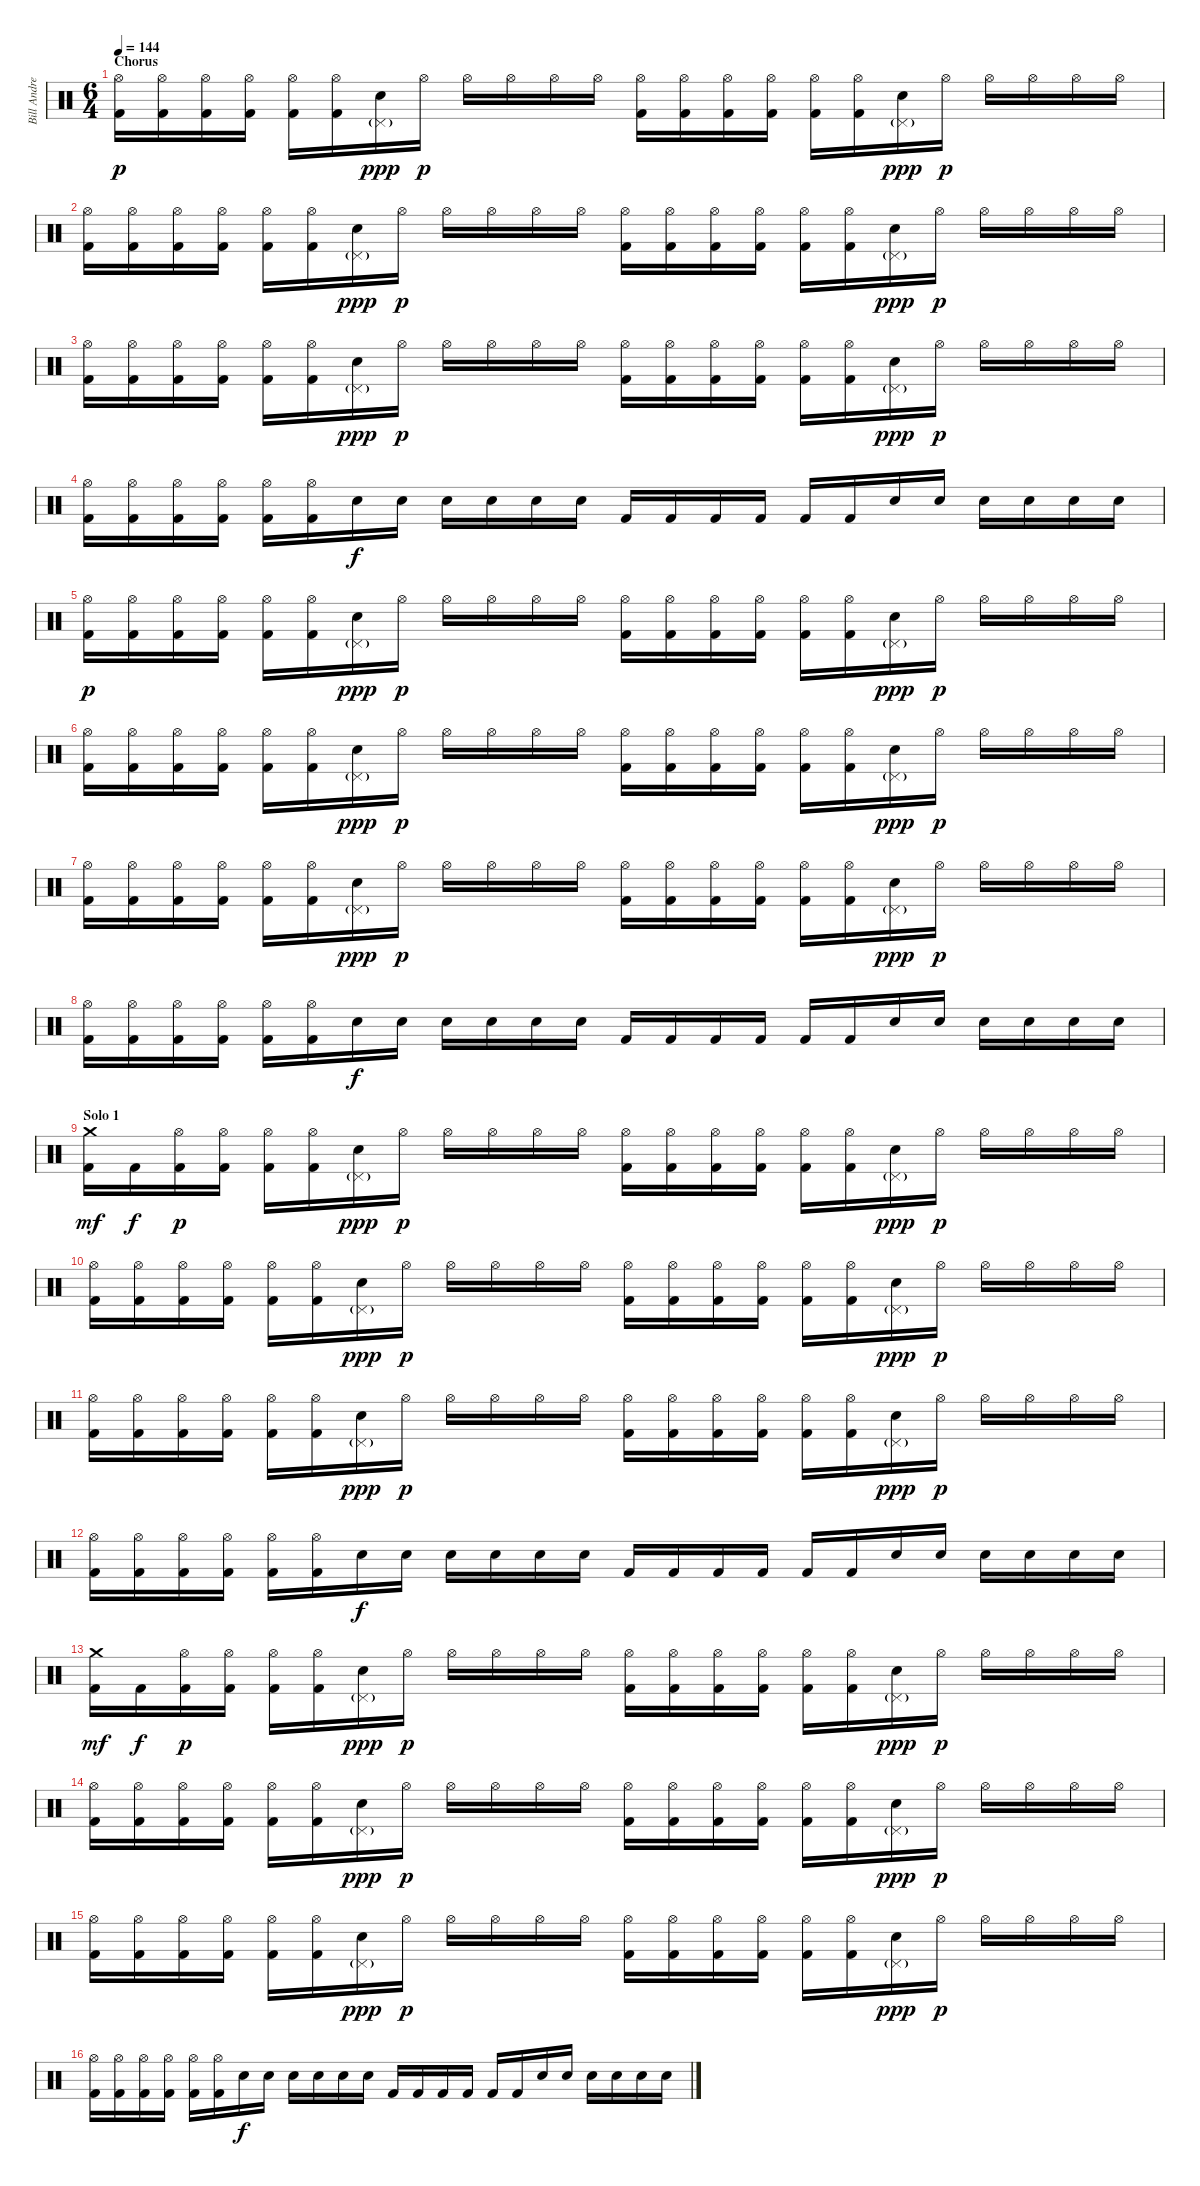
\track ("Bill Andrews" "Bill Andre") {instrument percussion}
\staff {score}
\articulation defaults
\ts (6 4)
\section ("" "Chorus")
\tempo 144
\clef neutral
\ks c
("Kick (hit) 2" "Hi-Hat (open)").16{dy p} ("Kick (hit) 2" "Hi-Hat (open)").16 ("Kick (hit) 2" "Hi-Hat (open)").16 ("Kick (hit) 2" "Hi-Hat (open)").16 ("Kick (hit) 2" "Hi-Hat (open)").16 ("Kick (hit) 2" "Hi-Hat (open)").16 ("Pedal Hi-Hat (hit)"{g} "Snare (hit) 2").16{dy ppp} "Hi-Hat (open)".16{dy p} "Hi-Hat (open)".16 "Hi-Hat (open)".16 "Hi-Hat (open)".16 "Hi-Hat (open)".16 ("Kick (hit) 2" "Hi-Hat (open)").16 ("Kick (hit) 2" "Hi-Hat (open)").16 ("Kick (hit) 2" "Hi-Hat (open)").16 ("Kick (hit) 2" "Hi-Hat (open)").16 ("Kick (hit) 2" "Hi-Hat (open)").16 ("Kick (hit) 2" "Hi-Hat (open)").16 ("Pedal Hi-Hat (hit)"{g} "Snare (hit) 2").16{dy ppp} "Hi-Hat (open)".16{dy p} "Hi-Hat (open)".16 "Hi-Hat (open)".16 "Hi-Hat (open)".16 "Hi-Hat (open)".16 |
("Kick (hit) 2" "Hi-Hat (open)").16 ("Kick (hit) 2" "Hi-Hat (open)").16 ("Kick (hit) 2" "Hi-Hat (open)").16 ("Kick (hit) 2" "Hi-Hat (open)").16 ("Kick (hit) 2" "Hi-Hat (open)").16 ("Kick (hit) 2" "Hi-Hat (open)").16 ("Pedal Hi-Hat (hit)"{g} "Snare (hit) 2").16{dy ppp} "Hi-Hat (open)".16{dy p} "Hi-Hat (open)".16 "Hi-Hat (open)".16 "Hi-Hat (open)".16 "Hi-Hat (open)".16 ("Kick (hit) 2" "Hi-Hat (open)").16 ("Kick (hit) 2" "Hi-Hat (open)").16 ("Kick (hit) 2" "Hi-Hat (open)").16 ("Kick (hit) 2" "Hi-Hat (open)").16 ("Kick (hit) 2" "Hi-Hat (open)").16 ("Kick (hit) 2" "Hi-Hat (open)").16 ("Pedal Hi-Hat (hit)"{g} "Snare (hit) 2").16{dy ppp} "Hi-Hat (open)".16{dy p} "Hi-Hat (open)".16 "Hi-Hat (open)".16 "Hi-Hat (open)".16 "Hi-Hat (open)".16 |
("Kick (hit) 2" "Hi-Hat (open)").16 ("Kick (hit) 2" "Hi-Hat (open)").16 ("Kick (hit) 2" "Hi-Hat (open)").16 ("Kick (hit) 2" "Hi-Hat (open)").16 ("Kick (hit) 2" "Hi-Hat (open)").16 ("Kick (hit) 2" "Hi-Hat (open)").16 ("Pedal Hi-Hat (hit)"{g} "Snare (hit) 2").16{dy ppp} "Hi-Hat (open)".16{dy p} "Hi-Hat (open)".16 "Hi-Hat (open)".16 "Hi-Hat (open)".16 "Hi-Hat (open)".16 ("Kick (hit) 2" "Hi-Hat (open)").16 ("Kick (hit) 2" "Hi-Hat (open)").16 ("Kick (hit) 2" "Hi-Hat (open)").16 ("Kick (hit) 2" "Hi-Hat (open)").16 ("Kick (hit) 2" "Hi-Hat (open)").16 ("Kick (hit) 2" "Hi-Hat (open)").16 ("Pedal Hi-Hat (hit)"{g} "Snare (hit) 2").16{dy ppp} "Hi-Hat (open)".16{dy p} "Hi-Hat (open)".16 "Hi-Hat (open)".16 "Hi-Hat (open)".16 "Hi-Hat (open)".16 |
("Kick (hit) 2" "Hi-Hat (open)").16 ("Kick (hit) 2" "Hi-Hat (open)").16 ("Kick (hit) 2" "Hi-Hat (open)").16 ("Kick (hit) 2" "Hi-Hat (open)").16 ("Kick (hit) 2" "Hi-Hat (open)").16 ("Kick (hit) 2" "Hi-Hat (open)").16 "Snare (hit) 2".16{dy f} "Snare (hit) 2".16 "Snare (hit) 2".16 "Snare (hit) 2".16 "Snare (hit) 2".16 "Snare (hit) 2".16 "Kick (hit) 2".16 "Kick (hit) 2".16 "Kick (hit) 2".16 "Kick (hit) 2".16 "Kick (hit) 2".16 "Kick (hit) 2".16 "Snare (hit) 2".16 "Snare (hit) 2".16 "Snare (hit) 2".16 "Snare (hit) 2".16 "Snare (hit) 2".16 "Snare (hit) 2".16 |
("Kick (hit) 2" "Hi-Hat (open)").16{dy p} ("Kick (hit) 2" "Hi-Hat (open)").16 ("Kick (hit) 2" "Hi-Hat (open)").16 ("Kick (hit) 2" "Hi-Hat (open)").16 ("Kick (hit) 2" "Hi-Hat (open)").16 ("Kick (hit) 2" "Hi-Hat (open)").16 ("Pedal Hi-Hat (hit)"{g} "Snare (hit) 2").16{dy ppp} "Hi-Hat (open)".16{dy p} "Hi-Hat (open)".16 "Hi-Hat (open)".16 "Hi-Hat (open)".16 "Hi-Hat (open)".16 ("Kick (hit) 2" "Hi-Hat (open)").16 ("Kick (hit) 2" "Hi-Hat (open)").16 ("Kick (hit) 2" "Hi-Hat (open)").16 ("Kick (hit) 2" "Hi-Hat (open)").16 ("Kick (hit) 2" "Hi-Hat (open)").16 ("Kick (hit) 2" "Hi-Hat (open)").16 ("Pedal Hi-Hat (hit)"{g} "Snare (hit) 2").16{dy ppp} "Hi-Hat (open)".16{dy p} "Hi-Hat (open)".16 "Hi-Hat (open)".16 "Hi-Hat (open)".16 "Hi-Hat (open)".16 |
("Kick (hit) 2" "Hi-Hat (open)").16 ("Kick (hit) 2" "Hi-Hat (open)").16 ("Kick (hit) 2" "Hi-Hat (open)").16 ("Kick (hit) 2" "Hi-Hat (open)").16 ("Kick (hit) 2" "Hi-Hat (open)").16 ("Kick (hit) 2" "Hi-Hat (open)").16 ("Pedal Hi-Hat (hit)"{g} "Snare (hit) 2").16{dy ppp} "Hi-Hat (open)".16{dy p} "Hi-Hat (open)".16 "Hi-Hat (open)".16 "Hi-Hat (open)".16 "Hi-Hat (open)".16 ("Kick (hit) 2" "Hi-Hat (open)").16 ("Kick (hit) 2" "Hi-Hat (open)").16 ("Kick (hit) 2" "Hi-Hat (open)").16 ("Kick (hit) 2" "Hi-Hat (open)").16 ("Kick (hit) 2" "Hi-Hat (open)").16 ("Kick (hit) 2" "Hi-Hat (open)").16 ("Pedal Hi-Hat (hit)"{g} "Snare (hit) 2").16{dy ppp} "Hi-Hat (open)".16{dy p} "Hi-Hat (open)".16 "Hi-Hat (open)".16 "Hi-Hat (open)".16 "Hi-Hat (open)".16 |
("Kick (hit) 2" "Hi-Hat (open)").16 ("Kick (hit) 2" "Hi-Hat (open)").16 ("Kick (hit) 2" "Hi-Hat (open)").16 ("Kick (hit) 2" "Hi-Hat (open)").16 ("Kick (hit) 2" "Hi-Hat (open)").16 ("Kick (hit) 2" "Hi-Hat (open)").16 ("Pedal Hi-Hat (hit)"{g} "Snare (hit) 2").16{dy ppp} "Hi-Hat (open)".16{dy p} "Hi-Hat (open)".16 "Hi-Hat (open)".16 "Hi-Hat (open)".16 "Hi-Hat (open)".16 ("Kick (hit) 2" "Hi-Hat (open)").16 ("Kick (hit) 2" "Hi-Hat (open)").16 ("Kick (hit) 2" "Hi-Hat (open)").16 ("Kick (hit) 2" "Hi-Hat (open)").16 ("Kick (hit) 2" "Hi-Hat (open)").16 ("Kick (hit) 2" "Hi-Hat (open)").16 ("Pedal Hi-Hat (hit)"{g} "Snare (hit) 2").16{dy ppp} "Hi-Hat (open)".16{dy p} "Hi-Hat (open)".16 "Hi-Hat (open)".16 "Hi-Hat (open)".16 "Hi-Hat (open)".16 |
("Kick (hit) 2" "Hi-Hat (open)").16 ("Kick (hit) 2" "Hi-Hat (open)").16 ("Kick (hit) 2" "Hi-Hat (open)").16 ("Kick (hit) 2" "Hi-Hat (open)").16 ("Kick (hit) 2" "Hi-Hat (open)").16 ("Kick (hit) 2" "Hi-Hat (open)").16 "Snare (hit) 2".16{dy f} "Snare (hit) 2".16 "Snare (hit) 2".16 "Snare (hit) 2".16 "Snare (hit) 2".16 "Snare (hit) 2".16 "Kick (hit) 2".16 "Kick (hit) 2".16 "Kick (hit) 2".16 "Kick (hit) 2".16 "Kick (hit) 2".16 "Kick (hit) 2".16 "Snare (hit) 2".16 "Snare (hit) 2".16 "Snare (hit) 2".16 "Snare (hit) 2".16 "Snare (hit) 2".16 "Snare (hit) 2".16 |
\section ("" "Solo 1")
("Kick (hit) 2" "Crash medium (hit)").16{dy mf} "Kick (hit) 2".16{dy f} ("Kick (hit) 2" "Hi-Hat (open)").16{dy p} ("Kick (hit) 2" "Hi-Hat (open)").16 ("Kick (hit) 2" "Hi-Hat (open)").16 ("Kick (hit) 2" "Hi-Hat (open)").16 ("Pedal Hi-Hat (hit)"{g} "Snare (hit) 2").16{dy ppp} "Hi-Hat (open)".16{dy p} "Hi-Hat (open)".16 "Hi-Hat (open)".16 "Hi-Hat (open)".16 "Hi-Hat (open)".16 ("Kick (hit) 2" "Hi-Hat (open)").16 ("Kick (hit) 2" "Hi-Hat (open)").16 ("Kick (hit) 2" "Hi-Hat (open)").16 ("Kick (hit) 2" "Hi-Hat (open)").16 ("Kick (hit) 2" "Hi-Hat (open)").16 ("Kick (hit) 2" "Hi-Hat (open)").16 ("Pedal Hi-Hat (hit)"{g} "Snare (hit) 2").16{dy ppp} "Hi-Hat (open)".16{dy p} "Hi-Hat (open)".16 "Hi-Hat (open)".16 "Hi-Hat (open)".16 "Hi-Hat (open)".16 |
("Kick (hit) 2" "Hi-Hat (open)").16 ("Kick (hit) 2" "Hi-Hat (open)").16 ("Kick (hit) 2" "Hi-Hat (open)").16 ("Kick (hit) 2" "Hi-Hat (open)").16 ("Kick (hit) 2" "Hi-Hat (open)").16 ("Kick (hit) 2" "Hi-Hat (open)").16 ("Pedal Hi-Hat (hit)"{g} "Snare (hit) 2").16{dy ppp} "Hi-Hat (open)".16{dy p} "Hi-Hat (open)".16 "Hi-Hat (open)".16 "Hi-Hat (open)".16 "Hi-Hat (open)".16 ("Kick (hit) 2" "Hi-Hat (open)").16 ("Kick (hit) 2" "Hi-Hat (open)").16 ("Kick (hit) 2" "Hi-Hat (open)").16 ("Kick (hit) 2" "Hi-Hat (open)").16 ("Kick (hit) 2" "Hi-Hat (open)").16 ("Kick (hit) 2" "Hi-Hat (open)").16 ("Pedal Hi-Hat (hit)"{g} "Snare (hit) 2").16{dy ppp} "Hi-Hat (open)".16{dy p} "Hi-Hat (open)".16 "Hi-Hat (open)".16 "Hi-Hat (open)".16 "Hi-Hat (open)".16 |
("Kick (hit) 2" "Hi-Hat (open)").16 ("Kick (hit) 2" "Hi-Hat (open)").16 ("Kick (hit) 2" "Hi-Hat (open)").16 ("Kick (hit) 2" "Hi-Hat (open)").16 ("Kick (hit) 2" "Hi-Hat (open)").16 ("Kick (hit) 2" "Hi-Hat (open)").16 ("Pedal Hi-Hat (hit)"{g} "Snare (hit) 2").16{dy ppp} "Hi-Hat (open)".16{dy p} "Hi-Hat (open)".16 "Hi-Hat (open)".16 "Hi-Hat (open)".16 "Hi-Hat (open)".16 ("Kick (hit) 2" "Hi-Hat (open)").16 ("Kick (hit) 2" "Hi-Hat (open)").16 ("Kick (hit) 2" "Hi-Hat (open)").16 ("Kick (hit) 2" "Hi-Hat (open)").16 ("Kick (hit) 2" "Hi-Hat (open)").16 ("Kick (hit) 2" "Hi-Hat (open)").16 ("Pedal Hi-Hat (hit)"{g} "Snare (hit) 2").16{dy ppp} "Hi-Hat (open)".16{dy p} "Hi-Hat (open)".16 "Hi-Hat (open)".16 "Hi-Hat (open)".16 "Hi-Hat (open)".16 |
("Kick (hit) 2" "Hi-Hat (open)").16 ("Kick (hit) 2" "Hi-Hat (open)").16 ("Kick (hit) 2" "Hi-Hat (open)").16 ("Kick (hit) 2" "Hi-Hat (open)").16 ("Kick (hit) 2" "Hi-Hat (open)").16 ("Kick (hit) 2" "Hi-Hat (open)").16 "Snare (hit) 2".16{dy f} "Snare (hit) 2".16 "Snare (hit) 2".16 "Snare (hit) 2".16 "Snare (hit) 2".16 "Snare (hit) 2".16 "Kick (hit) 2".16 "Kick (hit) 2".16 "Kick (hit) 2".16 "Kick (hit) 2".16 "Kick (hit) 2".16 "Kick (hit) 2".16 "Snare (hit) 2".16 "Snare (hit) 2".16 "Snare (hit) 2".16 "Snare (hit) 2".16 "Snare (hit) 2".16 "Snare (hit) 2".16 |
("Kick (hit) 2" "Crash medium (hit)").16{dy mf} "Kick (hit) 2".16{dy f} ("Kick (hit) 2" "Hi-Hat (open)").16{dy p} ("Kick (hit) 2" "Hi-Hat (open)").16 ("Kick (hit) 2" "Hi-Hat (open)").16 ("Kick (hit) 2" "Hi-Hat (open)").16 ("Pedal Hi-Hat (hit)"{g} "Snare (hit) 2").16{dy ppp} "Hi-Hat (open)".16{dy p} "Hi-Hat (open)".16 "Hi-Hat (open)".16 "Hi-Hat (open)".16 "Hi-Hat (open)".16 ("Kick (hit) 2" "Hi-Hat (open)").16 ("Kick (hit) 2" "Hi-Hat (open)").16 ("Kick (hit) 2" "Hi-Hat (open)").16 ("Kick (hit) 2" "Hi-Hat (open)").16 ("Kick (hit) 2" "Hi-Hat (open)").16 ("Kick (hit) 2" "Hi-Hat (open)").16 ("Pedal Hi-Hat (hit)"{g} "Snare (hit) 2").16{dy ppp} "Hi-Hat (open)".16{dy p} "Hi-Hat (open)".16 "Hi-Hat (open)".16 "Hi-Hat (open)".16 "Hi-Hat (open)".16 |
("Kick (hit) 2" "Hi-Hat (open)").16 ("Kick (hit) 2" "Hi-Hat (open)").16 ("Kick (hit) 2" "Hi-Hat (open)").16 ("Kick (hit) 2" "Hi-Hat (open)").16 ("Kick (hit) 2" "Hi-Hat (open)").16 ("Kick (hit) 2" "Hi-Hat (open)").16 ("Pedal Hi-Hat (hit)"{g} "Snare (hit) 2").16{dy ppp} "Hi-Hat (open)".16{dy p} "Hi-Hat (open)".16 "Hi-Hat (open)".16 "Hi-Hat (open)".16 "Hi-Hat (open)".16 ("Kick (hit) 2" "Hi-Hat (open)").16 ("Kick (hit) 2" "Hi-Hat (open)").16 ("Kick (hit) 2" "Hi-Hat (open)").16 ("Kick (hit) 2" "Hi-Hat (open)").16 ("Kick (hit) 2" "Hi-Hat (open)").16 ("Kick (hit) 2" "Hi-Hat (open)").16 ("Pedal Hi-Hat (hit)"{g} "Snare (hit) 2").16{dy ppp} "Hi-Hat (open)".16{dy p} "Hi-Hat (open)".16 "Hi-Hat (open)".16 "Hi-Hat (open)".16 "Hi-Hat (open)".16 |
("Kick (hit) 2" "Hi-Hat (open)").16 ("Kick (hit) 2" "Hi-Hat (open)").16 ("Kick (hit) 2" "Hi-Hat (open)").16 ("Kick (hit) 2" "Hi-Hat (open)").16 ("Kick (hit) 2" "Hi-Hat (open)").16 ("Kick (hit) 2" "Hi-Hat (open)").16 ("Pedal Hi-Hat (hit)"{g} "Snare (hit) 2").16{dy ppp} "Hi-Hat (open)".16{dy p} "Hi-Hat (open)".16 "Hi-Hat (open)".16 "Hi-Hat (open)".16 "Hi-Hat (open)".16 ("Kick (hit) 2" "Hi-Hat (open)").16 ("Kick (hit) 2" "Hi-Hat (open)").16 ("Kick (hit) 2" "Hi-Hat (open)").16 ("Kick (hit) 2" "Hi-Hat (open)").16 ("Kick (hit) 2" "Hi-Hat (open)").16 ("Kick (hit) 2" "Hi-Hat (open)").16 ("Pedal Hi-Hat (hit)"{g} "Snare (hit) 2").16{dy ppp} "Hi-Hat (open)".16{dy p} "Hi-Hat (open)".16 "Hi-Hat (open)".16 "Hi-Hat (open)".16 "Hi-Hat (open)".16 |
("Kick (hit) 2" "Hi-Hat (open)").16 ("Kick (hit) 2" "Hi-Hat (open)").16 ("Kick (hit) 2" "Hi-Hat (open)").16 ("Kick (hit) 2" "Hi-Hat (open)").16 ("Kick (hit) 2" "Hi-Hat (open)").16 ("Kick (hit) 2" "Hi-Hat (open)").16 "Snare (hit) 2".16{dy f} "Snare (hit) 2".16 "Snare (hit) 2".16 "Snare (hit) 2".16 "Snare (hit) 2".16 "Snare (hit) 2".16 "Kick (hit) 2".16 "Kick (hit) 2".16 "Kick (hit) 2".16 "Kick (hit) 2".16 "Kick (hit) 2".16 "Kick (hit) 2".16 "Snare (hit) 2".16 "Snare (hit) 2".16 "Snare (hit) 2".16 "Snare (hit) 2".16 "Snare (hit) 2".16 "Snare (hit) 2".16
